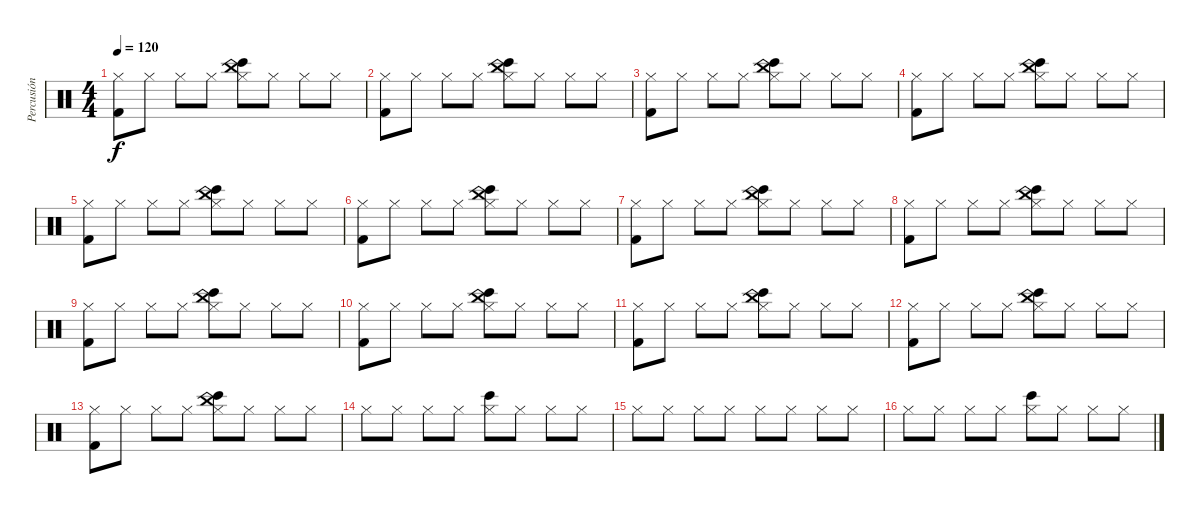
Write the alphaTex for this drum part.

\track ("Percusión" "Percusión") {instrument percussion}
\staff {score}
\articulation defaults
\ts (4 4)
\tempo 120
\clef neutral
\ks c
("Hi-Hat (closed)" "Kick (hit) 2").8{dy f} "Hi-Hat (closed)".8 "Hi-Hat (closed)".8 "Hi-Hat (closed)".8 ("Hi-Hat (closed)" "Bongo High (hit)" "China (hit)").8 "Hi-Hat (closed)".8 "Hi-Hat (closed)".8 "Hi-Hat (closed)".8 |
("Hi-Hat (closed)" "Kick (hit) 2").8 "Hi-Hat (closed)".8 "Hi-Hat (closed)".8 "Hi-Hat (closed)".8 ("Hi-Hat (closed)" "Bongo High (hit)" "China (hit)").8 "Hi-Hat (closed)".8 "Hi-Hat (closed)".8 "Hi-Hat (closed)".8 |
("Hi-Hat (closed)" "Kick (hit) 2").8 "Hi-Hat (closed)".8 "Hi-Hat (closed)".8 "Hi-Hat (closed)".8 ("Hi-Hat (closed)" "Bongo High (hit)" "China (hit)").8 "Hi-Hat (closed)".8 "Hi-Hat (closed)".8 "Hi-Hat (closed)".8 |
("Hi-Hat (closed)" "Kick (hit) 2").8 "Hi-Hat (closed)".8 "Hi-Hat (closed)".8 "Hi-Hat (closed)".8 ("Hi-Hat (closed)" "Bongo High (hit)" "China (hit)").8 "Hi-Hat (closed)".8 "Hi-Hat (closed)".8 "Hi-Hat (closed)".8 |
("Hi-Hat (closed)" "Kick (hit) 2").8 "Hi-Hat (closed)".8 "Hi-Hat (closed)".8 "Hi-Hat (closed)".8 ("Hi-Hat (closed)" "Bongo High (hit)" "China (hit)").8 "Hi-Hat (closed)".8 "Hi-Hat (closed)".8 "Hi-Hat (closed)".8 |
("Hi-Hat (closed)" "Kick (hit) 2").8 "Hi-Hat (closed)".8 "Hi-Hat (closed)".8 "Hi-Hat (closed)".8 ("Hi-Hat (closed)" "Bongo High (hit)" "China (hit)").8 "Hi-Hat (closed)".8 "Hi-Hat (closed)".8 "Hi-Hat (closed)".8 |
("Hi-Hat (closed)" "Kick (hit) 2").8 "Hi-Hat (closed)".8 "Hi-Hat (closed)".8 "Hi-Hat (closed)".8 ("Hi-Hat (closed)" "Bongo High (hit)" "China (hit)").8 "Hi-Hat (closed)".8 "Hi-Hat (closed)".8 "Hi-Hat (closed)".8 |
("Hi-Hat (closed)" "Kick (hit) 2").8 "Hi-Hat (closed)".8 "Hi-Hat (closed)".8 "Hi-Hat (closed)".8 ("Hi-Hat (closed)" "Bongo High (hit)" "China (hit)").8 "Hi-Hat (closed)".8 "Hi-Hat (closed)".8 "Hi-Hat (closed)".8 |
("Hi-Hat (closed)" "Kick (hit) 2").8 "Hi-Hat (closed)".8 "Hi-Hat (closed)".8 "Hi-Hat (closed)".8 ("Hi-Hat (closed)" "Bongo High (hit)" "China (hit)").8 "Hi-Hat (closed)".8 "Hi-Hat (closed)".8 "Hi-Hat (closed)".8 |
("Hi-Hat (closed)" "Kick (hit) 2").8 "Hi-Hat (closed)".8 "Hi-Hat (closed)".8 "Hi-Hat (closed)".8 ("Hi-Hat (closed)" "Bongo High (hit)" "China (hit)").8 "Hi-Hat (closed)".8 "Hi-Hat (closed)".8 "Hi-Hat (closed)".8 |
("Hi-Hat (closed)" "Kick (hit) 2").8 "Hi-Hat (closed)".8 "Hi-Hat (closed)".8 "Hi-Hat (closed)".8 ("Hi-Hat (closed)" "Bongo High (hit)" "China (hit)").8 "Hi-Hat (closed)".8 "Hi-Hat (closed)".8 "Hi-Hat (closed)".8 |
("Hi-Hat (closed)" "Kick (hit) 2").8 "Hi-Hat (closed)".8 "Hi-Hat (closed)".8 "Hi-Hat (closed)".8 ("Hi-Hat (closed)" "Bongo High (hit)" "China (hit)").8 "Hi-Hat (closed)".8 "Hi-Hat (closed)".8 "Hi-Hat (closed)".8 |
("Hi-Hat (closed)" "Kick (hit) 2").8 "Hi-Hat (closed)".8 "Hi-Hat (closed)".8 "Hi-Hat (closed)".8 ("Hi-Hat (closed)" "Bongo High (hit)" "China (hit)").8 "Hi-Hat (closed)".8 "Hi-Hat (closed)".8 "Hi-Hat (closed)".8 |
"Hi-Hat (closed)".8 "Hi-Hat (closed)".8 "Hi-Hat (closed)".8 "Hi-Hat (closed)".8 ("Hi-Hat (closed)" "Bongo High (hit)").8 "Hi-Hat (closed)".8 "Hi-Hat (closed)".8 "Hi-Hat (closed)".8 |
"Hi-Hat (closed)".8 "Hi-Hat (closed)".8 "Hi-Hat (closed)".8 "Hi-Hat (closed)".8 "Hi-Hat (closed)".8 "Hi-Hat (closed)".8 "Hi-Hat (closed)".8 "Hi-Hat (closed)".8 |
"Hi-Hat (closed)".8 "Hi-Hat (closed)".8 "Hi-Hat (closed)".8 "Hi-Hat (closed)".8 ("Hi-Hat (closed)" "Bongo High (hit)").8 "Hi-Hat (closed)".8 "Hi-Hat (closed)".8 "Hi-Hat (closed)".8
